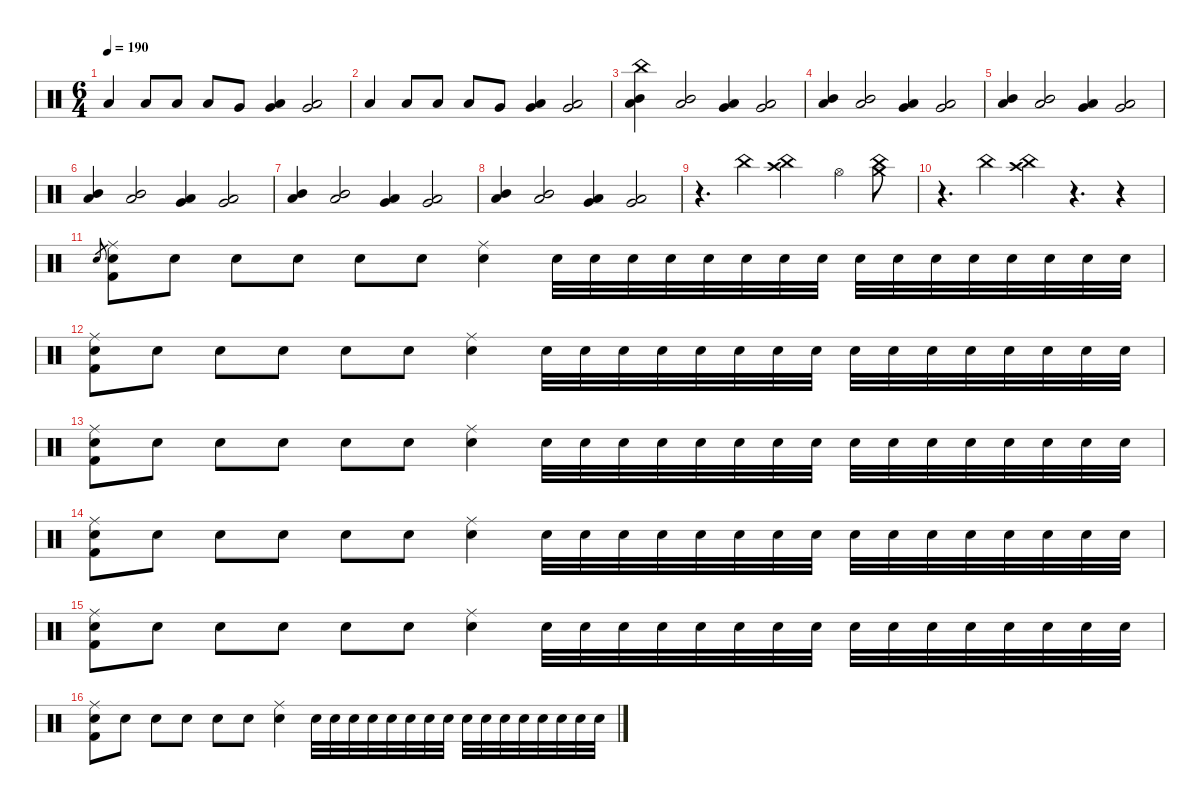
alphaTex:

\defaultSystemsLayout 4
\hideDynamics
\bracketExtendMode nobrackets
\singleTrackTrackNamePolicy hidden
\multiTrackTrackNamePolicy hidden
\firstSystemTrackNameMode fullname
\firstSystemTrackNameOrientation horizontal
\otherSystemsTrackNameOrientation horizontal
\track ("Drums" "drm.") {instrument percussion}
\staff {score}
\articulation defaults
\ts (6 4)
\tempo 190
\clef neutral
\ks c "Low Tom (hit)".4{dy mf beam Up} "Low Tom (hit)".8{dy mp beam Up} "Low Tom (hit)".8{beam Up} "Low Tom (hit)".8{beam Up} "Very Low Tom (hit)".8{beam Up}
("Very Low Tom (hit)" "Low Floor Tom (hit)").4{beam Up} ("Very Low Tom (hit)" "Low Floor Tom (hit)").2{dy mf beam Up} |
"Low Tom (hit)".4{beam Up} "Low Tom (hit)".8{dy mp beam Up} "Low Tom (hit)".8{beam Up} "Low Tom (hit)".8{beam Up} "Very Low Tom (hit)".8{beam Up} ("Very Low Tom (hit)" "Low Floor Tom (hit)").4{beam Up} ("Very Low Tom (hit)" "Low Floor Tom (hit)").2{dy mf beam Up} |
("China (hit)" "Mid Tom (hit)" "Low Tom (hit)").4{beam Down} ("Mid Tom (hit)" "Low Tom (hit)").2{beam Up} ("Low Tom (hit)" "Very Low Tom (hit)").4{beam Up} ("Low Tom (hit)" "Very Low Tom (hit)").2{beam Up} |
("Mid Tom (hit)" "Low Tom (hit)").4{beam Up} ("Mid Tom (hit)" "Low Tom (hit)").2{beam Up} ("Low Tom (hit)" "Very Low Tom (hit)").4{beam Up} ("Low Tom (hit)" "Very Low Tom (hit)").2{beam Up} |
("Mid Tom (hit)" "Low Tom (hit)").4{beam Up} ("Mid Tom (hit)" "Low Tom (hit)").2{beam Up} ("Low Tom (hit)" "Very Low Tom (hit)").4{beam Up} ("Low Tom (hit)" "Very Low Tom (hit)").2{beam Up} |
("Mid Tom (hit)" "Low Tom (hit)").4{beam Up} ("Mid Tom (hit)" "Low Tom (hit)").2{beam Up} ("Low Tom (hit)" "Very Low Tom (hit)").4{beam Up} ("Low Tom (hit)" "Very Low Tom (hit)").2{beam Up} |
("Mid Tom (hit)" "Low Tom (hit)").4{beam Up} ("Mid Tom (hit)" "Low Tom (hit)").2{beam Up} ("Low Tom (hit)" "Very Low Tom (hit)").4{beam Up} ("Low Tom (hit)" "Very Low Tom (hit)").2{beam Up} |
("Mid Tom (hit)" "Low Tom (hit)").4{beam Up} ("Mid Tom (hit)" "Low Tom (hit)").2{beam Up} ("Low Tom (hit)" "Very Low Tom (hit)").4{beam Up} ("Low Tom (hit)" "Very Low Tom (hit)").2{beam Up} |
r.4{d beam Down} "China (hit)".4{beam Down} ("China (hit)" "Crash high (hit)").2{beam Down} "Hi-Hat (open)".4{dy mp beam Down} ("China (hit)" "Crash medium (hit)").8{dy mf beam Down} |
r.4{d beam Down} "China (hit)".4{beam Down} ("China (hit)" "Crash high (hit)").4{dy mp beam Down} r.4{d beam Down} r.4{beam Down} |
"Electric Snare (hit)".8{gr dy pp beam Up} ("Ride (middle)" "Snare (hit) 2" "Kick (hit) 2").8{dy f beam Down} "Snare (hit) 2".8{dy mp beam Down} "Snare (hit) 2".8{beam Down} "Snare (hit) 2".8{beam Down} "Snare (hit) 2".8{dy p beam Down} "Snare (hit) 2".8{beam Down} ("Ride (middle)" "Snare (hit) 2").4{dy mf beam Down} "Snare (hit) 2".32{dy p beam Down} "Snare (hit) 2".32{beam Down} "Snare (hit) 2".32{beam Down} "Snare (hit) 2".32{beam Down} "Snare (hit) 2".32{beam Down} "Snare (hit) 2".32{beam Down} "Snare (hit) 2".32{beam Down} "Snare (hit) 2".32{dy pp beam Down} "Snare (hit) 2".32{beam Down} "Snare (hit) 2".32{beam Down} "Snare (hit) 2".32{dy p beam Down} "Snare (hit) 2".32{beam Down} "Snare (hit) 2".32{beam Down} "Snare (hit) 2".32{beam Down} "Snare (hit) 2".32{beam Down} "Snare (hit) 2".32{beam Down} |
("Ride (middle)" "Snare (hit) 2" "Kick (hit) 2").8{dy f beam Down} "Snare (hit) 2".8{dy mp beam Down} "Snare (hit) 2".8{beam Down} "Snare (hit) 2".8{beam Down} "Snare (hit) 2".8{dy p beam Down} "Snare (hit) 2".8{beam Down} ("Ride (middle)" "Snare (hit) 2").4{dy mf beam Down} "Snare (hit) 2".32{dy p beam Down} "Snare (hit) 2".32{beam Down} "Snare (hit) 2".32{beam Down} "Snare (hit) 2".32{beam Down} "Snare (hit) 2".32{beam Down} "Snare (hit) 2".32{beam Down} "Snare (hit) 2".32{beam Down} "Snare (hit) 2".32{dy pp beam Down} "Snare (hit) 2".32{beam Down} "Snare (hit) 2".32{beam Down} "Snare (hit) 2".32{dy p beam Down} "Snare (hit) 2".32{beam Down} "Snare (hit) 2".32{beam Down} "Snare (hit) 2".32{beam Down} "Snare (hit) 2".32{beam Down} "Snare (hit) 2".32{beam Down} |
("Ride (middle)" "Snare (hit) 2" "Kick (hit) 2").8{dy f beam Down} "Snare (hit) 2".8{dy mp beam Down} "Snare (hit) 2".8{beam Down} "Snare (hit) 2".8{beam Down} "Snare (hit) 2".8{dy p beam Down} "Snare (hit) 2".8{beam Down} ("Ride (middle)" "Snare (hit) 2").4{dy mf beam Down} "Snare (hit) 2".32{dy p beam Down} "Snare (hit) 2".32{beam Down} "Snare (hit) 2".32{beam Down} "Snare (hit) 2".32{beam Down} "Snare (hit) 2".32{beam Down} "Snare (hit) 2".32{beam Down} "Snare (hit) 2".32{beam Down} "Snare (hit) 2".32{dy pp beam Down} "Snare (hit) 2".32{beam Down} "Snare (hit) 2".32{beam Down} "Snare (hit) 2".32{dy p beam Down} "Snare (hit) 2".32{beam Down} "Snare (hit) 2".32{beam Down} "Snare (hit) 2".32{beam Down} "Snare (hit) 2".32{beam Down} "Snare (hit) 2".32{beam Down} |
("Ride (middle)" "Snare (hit) 2" "Kick (hit) 2").8{dy f beam Down} "Snare (hit) 2".8{dy mp beam Down} "Snare (hit) 2".8{beam Down} "Snare (hit) 2".8{beam Down} "Snare (hit) 2".8{dy p beam Down} "Snare (hit) 2".8{beam Down} ("Ride (middle)" "Snare (hit) 2").4{dy mf beam Down} "Snare (hit) 2".32{dy p beam Down} "Snare (hit) 2".32{beam Down} "Snare (hit) 2".32{beam Down} "Snare (hit) 2".32{beam Down} "Snare (hit) 2".32{beam Down} "Snare (hit) 2".32{beam Down} "Snare (hit) 2".32{beam Down} "Snare (hit) 2".32{dy pp beam Down} "Snare (hit) 2".32{beam Down} "Snare (hit) 2".32{beam Down} "Snare (hit) 2".32{dy p beam Down} "Snare (hit) 2".32{beam Down} "Snare (hit) 2".32{beam Down} "Snare (hit) 2".32{beam Down} "Snare (hit) 2".32{beam Down} "Snare (hit) 2".32{beam Down} |
("Ride (middle)" "Snare (hit) 2" "Kick (hit) 2").8{dy f beam Down} "Snare (hit) 2".8{dy mp beam Down} "Snare (hit) 2".8{beam Down} "Snare (hit) 2".8{beam Down} "Snare (hit) 2".8{dy p beam Down} "Snare (hit) 2".8{beam Down} ("Ride (middle)" "Snare (hit) 2").4{dy mf beam Down} "Snare (hit) 2".32{dy p beam Down} "Snare (hit) 2".32{beam Down} "Snare (hit) 2".32{beam Down} "Snare (hit) 2".32{beam Down} "Snare (hit) 2".32{beam Down} "Snare (hit) 2".32{beam Down} "Snare (hit) 2".32{beam Down} "Snare (hit) 2".32{dy pp beam Down} "Snare (hit) 2".32{beam Down} "Snare (hit) 2".32{beam Down} "Snare (hit) 2".32{dy p beam Down} "Snare (hit) 2".32{beam Down} "Snare (hit) 2".32{beam Down} "Snare (hit) 2".32{beam Down} "Snare (hit) 2".32{beam Down} "Snare (hit) 2".32{beam Down} |
("Ride (middle)" "Snare (hit) 2" "Kick (hit) 2").8{dy f beam Down} "Snare (hit) 2".8{dy mp beam Down} "Snare (hit) 2".8{beam Down} "Snare (hit) 2".8{beam Down} "Snare (hit) 2".8{dy p beam Down} "Snare (hit) 2".8{beam Down} ("Ride (middle)" "Snare (hit) 2").4{dy mf beam Down} "Snare (hit) 2".32{dy p beam Down} "Snare (hit) 2".32{beam Down} "Snare (hit) 2".32{beam Down} "Snare (hit) 2".32{beam Down} "Snare (hit) 2".32{beam Down} "Snare (hit) 2".32{beam Down} "Snare (hit) 2".32{beam Down} "Snare (hit) 2".32{dy pp beam Down} "Snare (hit) 2".32{beam Down} "Snare (hit) 2".32{beam Down} "Snare (hit) 2".32{dy p beam Down} "Snare (hit) 2".32{beam Down} "Snare (hit) 2".32{beam Down} "Snare (hit) 2".32{beam Down} "Snare (hit) 2".32{beam Down} "Snare (hit) 2".32{beam Down}
